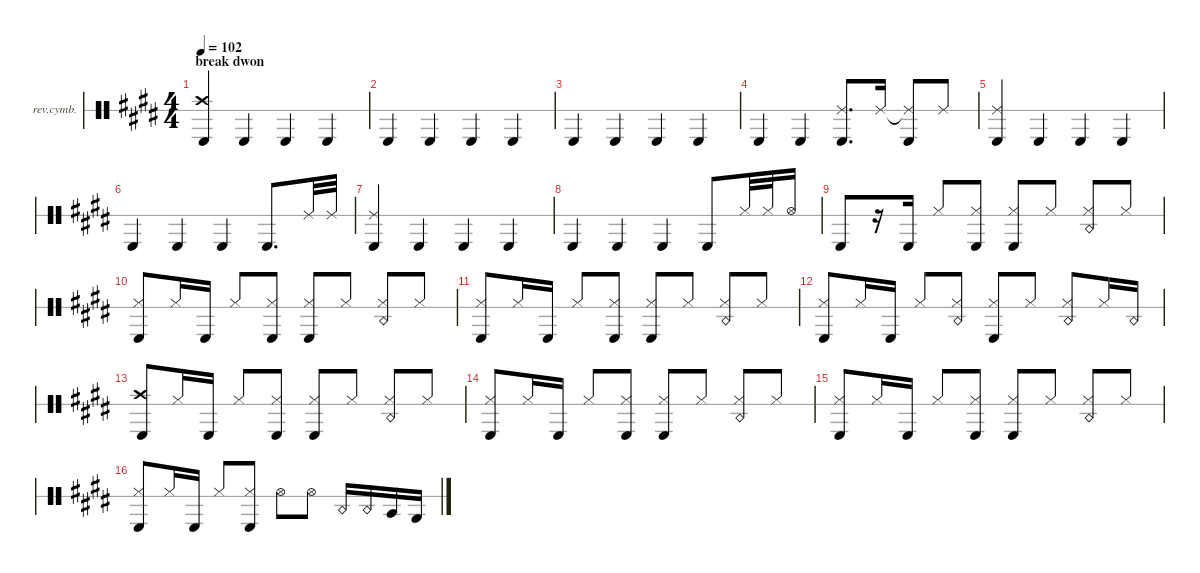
\defaultSystemsLayout 4
\hideDynamics
\bracketExtendMode nobrackets
\firstSystemTrackNameOrientation horizontal
\otherSystemsTrackNameOrientation horizontal
\track ("Reverse Cymbal" "rev.cymb.") {defaultSystemsLayout 4 instrument percussion}
\staff {score 1}
\articulation defaults
\ts (4 4)
\section ("" "break dwon")
\tempo 102
\clef neutral
\ks e
("Kick (hit) 2"{acc forcenatural} "Crash high (hit)"{acc forcenatural}).4{dy mf beam Up} "Kick (hit) 2"{acc forcenatural}.4{beam Up} "Kick (hit) 2"{acc forcenatural}.4{beam Up} "Kick (hit) 2"{acc forcenatural}.4{beam Up} |
"Kick (hit) 2"{acc forcenatural}.4{beam Up} "Kick (hit) 2"{acc forcenatural}.4{beam Up} "Kick (hit) 2"{acc forcenatural}.4{beam Up} "Kick (hit) 2"{acc forcenatural}.4{beam Up} |
"Kick (hit) 2"{acc forcenatural}.4{beam Up} "Kick (hit) 2"{acc forcenatural}.4{beam Up} "Kick (hit) 2"{acc forcenatural}.4{beam Up} "Kick (hit) 2"{acc forcenatural}.4{beam Up} |
"Kick (hit) 2"{acc forcenatural}.4{beam Up} "Kick (hit) 2"{acc forcenatural}.4{beam Up} ("Ride (middle)"{acc forcenatural} "Kick (hit) 2"{acc forcenatural}).8{d beam Up} "Ride (middle)"{acc forcenatural}.16{beam Up} ("Ride (middle)"{t acc forcenatural} "Kick (hit) 2"{acc forcenatural}).8{beam Up} "Ride (middle)"{acc forcenatural}.8{beam Up} |
("Kick (hit) 2"{acc forcenatural} "Ride (middle)"{acc forcenatural}).4{beam Up} "Kick (hit) 2"{acc forcenatural}.4{beam Up} "Kick (hit) 2"{acc forcenatural}.4{beam Up} "Kick (hit) 2"{acc forcenatural}.4{beam Up} |
"Kick (hit) 2"{acc forcenatural}.4{beam Up} "Kick (hit) 2"{acc forcenatural}.4{beam Up} "Kick (hit) 2"{acc forcenatural}.4{beam Up} "Kick (hit) 2"{acc forcenatural}.8{d beam Up} "Ride (middle)"{acc forcenatural}.32{dy mp beam Up} "Ride (middle)"{acc forcenatural}.32{beam Up} |
("Kick (hit) 2"{acc forcenatural} "Ride (middle)"{acc forcenatural}).4{dy mf beam Up} "Kick (hit) 2"{acc forcenatural}.4{beam Up} "Kick (hit) 2"{acc forcenatural}.4{beam Up} "Kick (hit) 2"{acc forcenatural}.4{beam Up} |
"Kick (hit) 2"{acc forcenatural}.4{beam Up} "Kick (hit) 2"{acc forcenatural}.4{beam Up} "Kick (hit) 2"{acc forcenatural}.4{beam Up} "Kick (hit) 2"{acc forcenatural}.8{beam Up} "Hi-Hat (closed)"{acc forcenatural}.32{dy mp beam Up} "Hi-Hat (closed)"{acc forcenatural}.32{beam Up} "Hi-Hat (open)"{acc forcenatural}.16{beam Up} |
"Kick (hit) 2"{acc forcenatural}.8{beam Up} r.16{beam Up} "Kick (hit) 2"{acc forcenatural}.16{beam Up} "Hi-Hat (closed)"{acc forcenatural}.8{beam Up} ("Hi-Hat (closed)"{acc forcenatural} "Kick (hit) 2"{acc forcenatural}).8{beam Up} ("Hi-Hat (closed)"{acc forcenatural} "Kick (hit) 2"{acc forcenatural}).8{beam Up} "Hi-Hat (closed)"{acc forcenatural}.8{beam Up} ("Hi-Hat (closed)"{acc forcenatural} "Snare (rim shot)"{acc forcenatural}).8{dy mf beam Up} "Hi-Hat (closed)"{acc forcenatural}.8{beam Up} |
("Kick (hit) 2"{acc forcenatural} "Hi-Hat (closed)"{acc forcenatural}).8{dy mp beam Up} "Hi-Hat (closed)"{acc forcenatural}.16{beam Up} "Kick (hit) 2"{acc forcenatural}.16{beam Up} "Hi-Hat (closed)"{acc forcenatural}.8{beam Up} ("Hi-Hat (closed)"{acc forcenatural} "Kick (hit) 2"{acc forcenatural}).8{beam Up} ("Hi-Hat (closed)"{acc forcenatural} "Kick (hit) 2"{acc forcenatural}).8{beam Up} "Hi-Hat (closed)"{acc forcenatural}.8{beam Up} ("Hi-Hat (closed)"{acc forcenatural} "Snare (rim shot)"{acc forcenatural}).8{dy mf beam Up} "Hi-Hat (closed)"{acc forcenatural}.8{beam Up} |
("Kick (hit) 2"{acc forcenatural} "Hi-Hat (closed)"{acc forcenatural}).8{dy mp beam Up} "Hi-Hat (closed)"{acc forcenatural}.16{beam Up} "Kick (hit) 2"{acc forcenatural}.16{beam Up} "Hi-Hat (closed)"{acc forcenatural}.8{beam Up} ("Hi-Hat (closed)"{acc forcenatural} "Kick (hit) 2"{acc forcenatural}).8{beam Up} ("Hi-Hat (closed)"{acc forcenatural} "Kick (hit) 2"{acc forcenatural}).8{beam Up} "Hi-Hat (closed)"{acc forcenatural}.8{beam Up} ("Hi-Hat (closed)"{acc forcenatural} "Snare (rim shot)"{acc forcenatural}).8{dy mf beam Up} "Hi-Hat (closed)"{acc forcenatural}.8{beam Up} |
("Kick (hit) 2"{acc forcenatural} "Hi-Hat (closed)"{acc forcenatural}).8{dy mp beam Up} "Hi-Hat (closed)"{acc forcenatural}.16{beam Up} "Kick (hit) 2"{acc forcenatural}.16{beam Up} "Hi-Hat (closed)"{acc forcenatural}.8{beam Up} ("Hi-Hat (closed)"{acc forcenatural} "Snare (rim shot)"{acc forcenatural}).8{beam Up} ("Hi-Hat (closed)"{acc forcenatural} "Kick (hit) 2"{acc forcenatural}).8{beam Up} "Hi-Hat (closed)"{acc forcenatural}.8{beam Up} ("Hi-Hat (closed)"{acc forcenatural} "Snare (rim shot)"{acc forcenatural}).8{dy mf beam Up} "Hi-Hat (closed)"{acc forcenatural}.16{beam Up} "Snare (rim shot)"{acc forcenatural}.16{beam Up} |
("Kick (hit) 2"{acc forcenatural} "Crash high (hit)"{acc forcenatural}).8{dy mp beam Up} "Hi-Hat (closed)"{acc forcenatural}.16{beam Up} "Kick (hit) 2"{acc forcenatural}.16{beam Up} "Hi-Hat (closed)"{acc forcenatural}.8{beam Up} ("Hi-Hat (closed)"{acc forcenatural} "Kick (hit) 2"{acc forcenatural}).8{beam Up} ("Hi-Hat (closed)"{acc forcenatural} "Kick (hit) 2"{acc forcenatural}).8{beam Up} "Hi-Hat (closed)"{acc forcenatural}.8{beam Up} ("Hi-Hat (closed)"{acc forcenatural} "Snare (rim shot)"{acc forcenatural}).8{dy mf beam Up} "Hi-Hat (closed)"{acc forcenatural}.8{beam Up} |
("Kick (hit) 2"{acc forcenatural} "Hi-Hat (closed)"{acc forcenatural}).8{dy mp beam Up} "Hi-Hat (closed)"{acc forcenatural}.16{beam Up} "Kick (hit) 2"{acc forcenatural}.16{beam Up} "Hi-Hat (closed)"{acc forcenatural}.8{beam Up} ("Hi-Hat (closed)"{acc forcenatural} "Kick (hit) 2"{acc forcenatural}).8{beam Up} ("Hi-Hat (closed)"{acc forcenatural} "Kick (hit) 2"{acc forcenatural}).8{beam Up} "Hi-Hat (closed)"{acc forcenatural}.8{beam Up} ("Hi-Hat (closed)"{acc forcenatural} "Snare (rim shot)"{acc forcenatural}).8{dy mf beam Up} "Hi-Hat (closed)"{acc forcenatural}.8{beam Up} |
("Kick (hit) 2"{acc forcenatural} "Hi-Hat (closed)"{acc forcenatural}).8{dy mp beam Up} "Hi-Hat (closed)"{acc forcenatural}.16{beam Up} "Kick (hit) 2"{acc forcenatural}.16{beam Up} "Hi-Hat (closed)"{acc forcenatural}.8{beam Up} ("Hi-Hat (closed)"{acc forcenatural} "Kick (hit) 2"{acc forcenatural}).8{beam Up} ("Hi-Hat (closed)"{acc forcenatural} "Kick (hit) 2"{acc forcenatural}).8{beam Up} "Hi-Hat (closed)"{acc forcenatural}.8{beam Up} ("Hi-Hat (closed)"{acc forcenatural} "Snare (rim shot)"{acc forcenatural}).8{dy mf beam Up} "Hi-Hat (closed)"{acc forcenatural}.8{beam Up} |
("Kick (hit) 2"{acc forcenatural} "Hi-Hat (closed)"{acc forcenatural}).8{dy mp beam Up} "Hi-Hat (closed)"{acc forcenatural}.16{beam Up} "Kick (hit) 2"{acc forcenatural}.16{beam Up} "Hi-Hat (closed)"{acc forcenatural}.8{beam Up} ("Hi-Hat (closed)"{acc forcenatural} "Kick (hit) 2"{acc forcenatural}).8{beam Up} "Hi-Hat (open)"{acc forcenatural}.8{dy mf beam Down} "Hi-Hat (open)"{acc forcenatural}.8{beam Down} "Snare (rim shot)"{acc forcenatural}.16{beam Up} "Snare (rim shot)"{acc forcenatural}.16{beam Up} "Mid Tom (hit)"{acc forcenatural}.16{beam Up} "Low Tom (hit)"{acc forcenatural}.16{beam Up}
